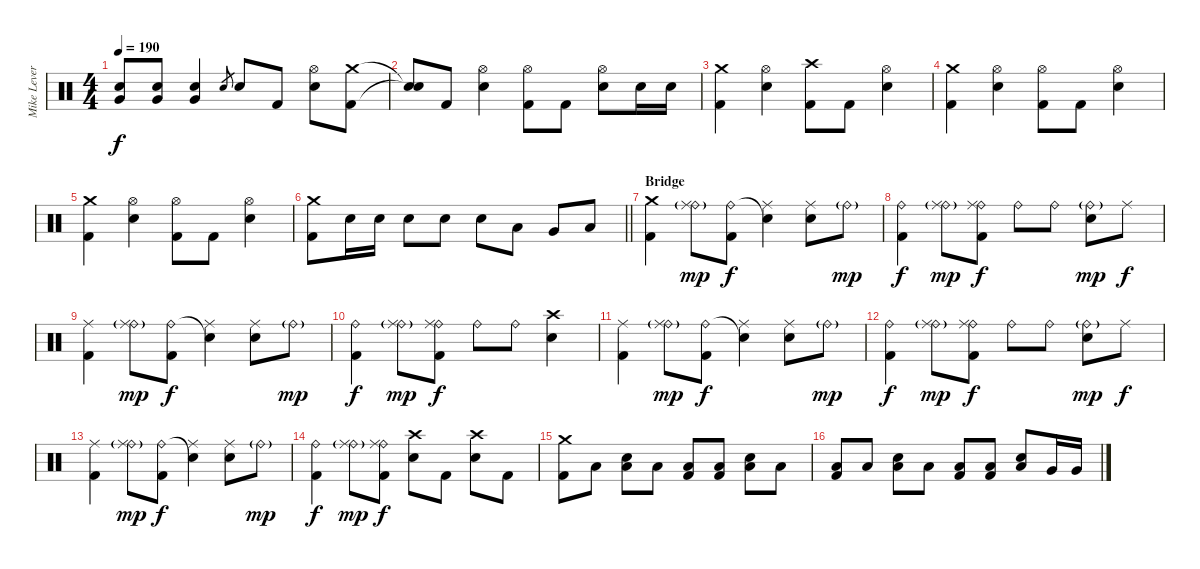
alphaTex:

\track ("Mike Leverence - Drums" "Mike Lever") {instrument percussion}
\staff {score}
\articulation defaults
\ts (4 4)
\tempo 190
\clef neutral
\ks c
("Electric Snare (hit)" "Very Low Tom (hit)").8{dy f} ("Electric Snare (hit)" "Very Low Tom (hit)").8 ("Electric Snare (hit)" "Very Low Tom (hit)").4 "Electric Snare (hit)".8{gr} "Electric Snare (hit)".8 "Kick (hit) 2".8 ("Hi-Hat (open)" "Electric Snare (hit)").8 ("Crash medium (hit)" "Kick (hit) 2").8 |
("Snare (hit)"{t} "Snare (hit)"{t}).8 "Kick (hit) 2".8 ("Hi-Hat (open)" "Electric Snare (hit)").4 ("Hi-Hat (open)" "Kick (hit) 2").8 "Kick (hit) 2".8 ("Hi-Hat (open)" "Electric Snare (hit)").8 "Electric Snare (hit)".16 "Electric Snare (hit)".16 |
("Crash medium (hit)" "Kick (hit) 2").4 ("Hi-Hat (open)" "Electric Snare (hit)").4 ("Crash high (hit)" "Kick (hit) 2").8 "Kick (hit) 2".8 ("Hi-Hat (open)" "Electric Snare (hit)").4 |
("Crash medium (hit)" "Kick (hit) 2").4 ("Hi-Hat (open)" "Electric Snare (hit)").4 ("Hi-Hat (open)" "Kick (hit) 2").8 "Kick (hit) 2".8 ("Hi-Hat (open)" "Electric Snare (hit)").4 |
("Crash medium (hit)" "Kick (hit) 2").4 ("Hi-Hat (open)" "Electric Snare (hit)").4 ("Hi-Hat (open)" "Kick (hit) 2").8 "Kick (hit) 2".8 ("Hi-Hat (open)" "Electric Snare (hit)").4 |
\barLineRight lightlight
("Crash medium (hit)" "Kick (hit) 2").8 "Electric Snare (hit)".16 "Electric Snare (hit)".16 "Electric Snare (hit)".8 "Electric Snare (hit)".8 "Electric Snare (hit)".8 "Low Tom (hit)".8 "Very Low Tom (hit)".8 "Low Floor Tom (hit)".8 |
\section ("" "Bridge")
("Crash medium (hit)" "Kick (hit) 2").4 ("Ride (bell)"{g} "Ride (middle)").8{dy mp} ("Ride (bell)" "Kick (hit) 2").8{dy f} ("Snare (hit)"{t} "Ride (middle)").4 ("Ride (middle)" "Electric Snare (hit)").8 "Ride (bell)"{g}.8{dy mp} |
("Ride (bell)" "Kick (hit) 2").4{dy f} ("Ride (bell)"{g} "Ride (middle)").8{dy mp} ("Ride (bell)" "Ride (middle)" "Kick (hit) 2").8{dy f} "Ride (bell)".8 "Ride (bell)".8 ("Ride (bell)"{g} "Electric Snare (hit)").8{dy mp} "Ride (middle)".8{dy f} |
("Ride (middle)" "Kick (hit) 2").4 ("Ride (bell)"{g} "Ride (middle)").8{dy mp} ("Ride (bell)" "Kick (hit) 2").8{dy f} ("Snare (hit)"{t} "Ride (middle)").4 ("Ride (middle)" "Electric Snare (hit)").8 "Ride (bell)"{g}.8{dy mp} |
("Ride (bell)" "Kick (hit) 2").4{dy f} ("Ride (bell)"{g} "Ride (middle)").8{dy mp} ("Ride (bell)" "Ride (middle)" "Kick (hit) 2").8{dy f} "Ride (bell)".8 "Ride (bell)".8 ("Crash high (hit)" "Electric Snare (hit)").4 |
("Ride (middle)" "Kick (hit) 2").4 ("Ride (bell)"{g} "Ride (middle)").8{dy mp} ("Ride (bell)" "Kick (hit) 2").8{dy f} ("Snare (hit)"{t} "Ride (middle)").4 ("Ride (middle)" "Electric Snare (hit)").8 "Ride (bell)"{g}.8{dy mp} |
("Ride (bell)" "Kick (hit) 2").4{dy f} ("Ride (bell)"{g} "Ride (middle)").8{dy mp} ("Ride (bell)" "Ride (middle)" "Kick (hit) 2").8{dy f} "Ride (bell)".8 "Ride (bell)".8 ("Ride (bell)"{g} "Electric Snare (hit)").8{dy mp} "Ride (middle)".8{dy f} |
("Ride (middle)" "Kick (hit) 2").4 ("Ride (bell)"{g} "Ride (middle)").8{dy mp} ("Ride (bell)" "Kick (hit) 2").8{dy f} ("Snare (hit)"{t} "Ride (middle)").4 ("Ride (middle)" "Electric Snare (hit)").8 "Ride (bell)"{g}.8{dy mp} |
("Ride (bell)" "Kick (hit) 2").4{dy f} ("Ride (bell)"{g} "Ride (middle)").8{dy mp} ("Ride (bell)" "Ride (middle)" "Kick (hit) 2").8{dy f} ("Crash high (hit)" "Electric Snare (hit)").8 "Kick (hit) 2".8 ("Crash high (hit)" "Electric Snare (hit)").8 "Kick (hit) 2".8 |
("Crash medium (hit)" "Kick (hit) 2").8 "Low Floor Tom (hit)".8 ("Low Floor Tom (hit)" "Electric Snare (hit)").8 "Low Floor Tom (hit)".8 ("Low Floor Tom (hit)" "Kick (hit) 2").8 ("Low Floor Tom (hit)" "Kick (hit) 2").8 ("Low Floor Tom (hit)" "Electric Snare (hit)").8 "Low Floor Tom (hit)".8 |
("Low Floor Tom (hit)" "Kick (hit) 2").8 "Low Floor Tom (hit)".8 ("Low Floor Tom (hit)" "Electric Snare (hit)").8 "Low Floor Tom (hit)".8 ("Low Floor Tom (hit)" "Kick (hit) 2").8 ("Low Floor Tom (hit)" "Kick (hit) 2").8 ("Low Floor Tom (hit)" "Electric Snare (hit)").8 "Very Low Tom (hit)".16 "Very Low Tom (hit)".16
